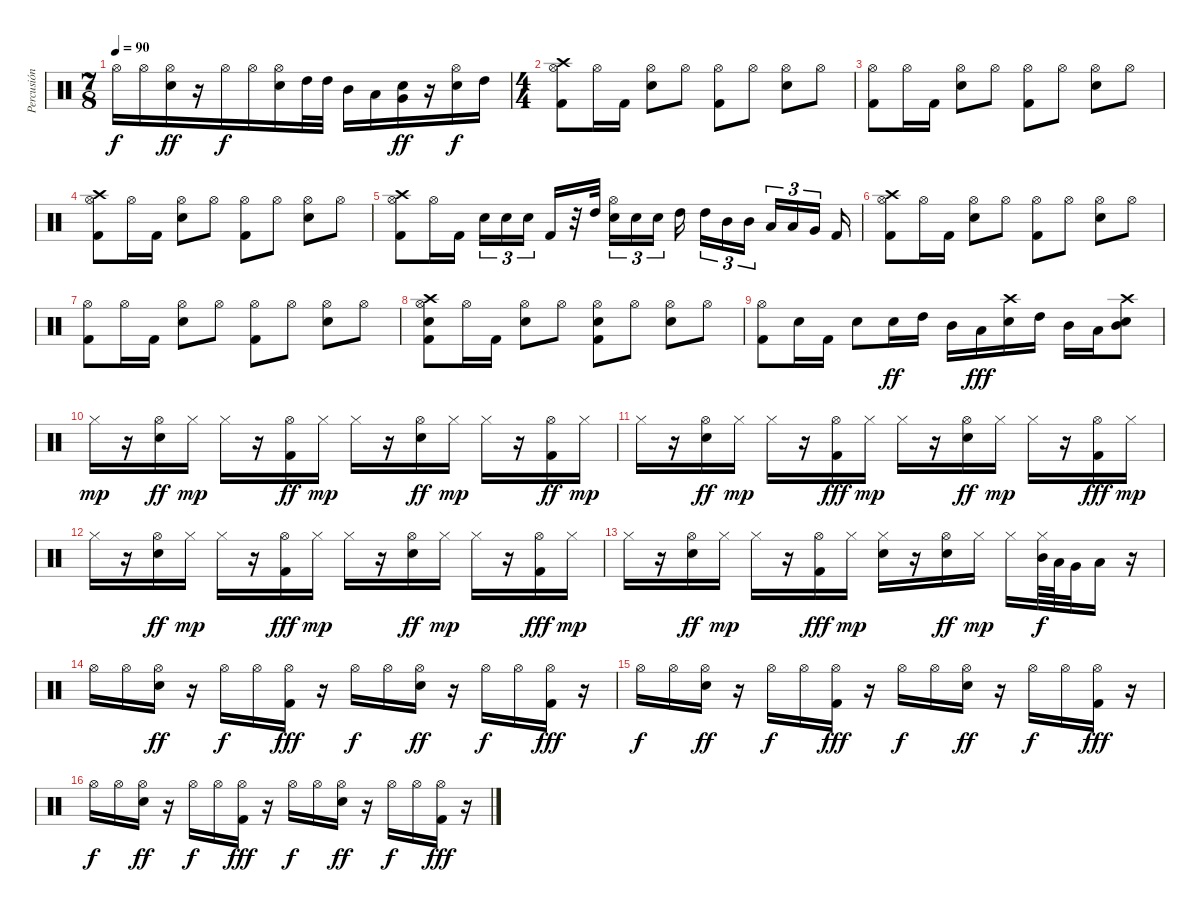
\track ("Percusión" "Percusión") {instrument percussion}
\staff {score}
\articulation defaults
\ts (7 8)
\tempo 90
\clef neutral
\ks c "Hi-Hat (open)".16{dy f} "Hi-Hat (open)".16
("Hi-Hat (open)" "Electric Snare (hit)").16{dy ff} r.16 "Hi-Hat (open)".16{dy f} "Hi-Hat (open)".16 ("Hi-Hat (open)" "Electric Snare (hit)").16 "High Tom (hit)".32 "High Tom (hit)".32 "Mid Tom (hit)".16 "Low Tom (hit)".16 ("Electric Snare (hit)" "Very Low Tom (hit)").16{dy ff} r.16 ("Hi-Hat (open)" "Electric Snare (hit)").16{dy f} "High Tom (hit)".16 |
\ts (4 4)
("Crash high (hit)" "Hi-Hat (open)" "Kick (hit) 2").8 "Hi-Hat (open)".16 "Kick (hit) 2".16 ("Hi-Hat (open)" "Electric Snare (hit)").8 "Hi-Hat (open)".8 ("Hi-Hat (open)" "Kick (hit) 2").8 "Hi-Hat (open)".8 ("Hi-Hat (open)" "Electric Snare (hit)").8 "Hi-Hat (open)".8 |
("Hi-Hat (open)" "Kick (hit) 2").8 "Hi-Hat (open)".16 "Kick (hit) 2".16 ("Hi-Hat (open)" "Electric Snare (hit)").8 "Hi-Hat (open)".8 ("Hi-Hat (open)" "Kick (hit) 2").8 "Hi-Hat (open)".8 ("Hi-Hat (open)" "Electric Snare (hit)").8 "Hi-Hat (open)".8 |
("Crash high (hit)" "Hi-Hat (open)" "Kick (hit) 2").8 "Hi-Hat (open)".16 "Kick (hit) 2".16 ("Hi-Hat (open)" "Electric Snare (hit)").8 "Hi-Hat (open)".8 ("Hi-Hat (open)" "Kick (hit) 2").8 "Hi-Hat (open)".8 ("Hi-Hat (open)" "Electric Snare (hit)").8 "Hi-Hat (open)".8 |
("Crash high (hit)" "Hi-Hat (open)" "Kick (hit) 2").8 "Hi-Hat (open)".16 "Kick (hit) 2".16 "Electric Snare (hit)".16{tu (3 2)} "Electric Snare (hit)".16{tu (3 2)} "Electric Snare (hit)".16{tu (3 2)} "Kick (hit) 2".16 r.32 "High Tom (hit)".32 ("Hi-Hat (open)" "Electric Snare (hit)").16{tu (3 2)} "Electric Snare (hit)".16{tu (3 2)} "Electric Snare (hit)".16{tu (3 2)} "High Tom (hit)".16 "High Tom (hit)".16{tu (3 2)} "Mid Tom (hit)".16{tu (3 2)} "Mid Tom (hit)".16{tu (3 2)} "Low Tom (hit)".16{tu (3 2)} "Low Tom (hit)".16{tu (3 2)} "Very Low Tom (hit)".16{tu (3 2)} "Kick (hit) 2".16 |
("Crash high (hit)" "Hi-Hat (open)" "Kick (hit) 2").8 "Hi-Hat (open)".16 "Kick (hit) 2".16 ("Hi-Hat (open)" "Electric Snare (hit)").8 "Hi-Hat (open)".8 ("Hi-Hat (open)" "Kick (hit) 2").8 "Hi-Hat (open)".8 ("Hi-Hat (open)" "Electric Snare (hit)").8 "Hi-Hat (open)".8 |
("Hi-Hat (open)" "Kick (hit) 2").8 "Hi-Hat (open)".16 "Kick (hit) 2".16 ("Hi-Hat (open)" "Electric Snare (hit)").8 "Hi-Hat (open)".8 ("Hi-Hat (open)" "Kick (hit) 2").8 "Hi-Hat (open)".8 ("Hi-Hat (open)" "Electric Snare (hit)").8 "Hi-Hat (open)".8 |
("Crash high (hit)" "Hi-Hat (open)" "Electric Snare (hit)" "Kick (hit) 2").8 "Hi-Hat (open)".16 "Kick (hit) 2".16 ("Hi-Hat (open)" "Electric Snare (hit)").8 "Hi-Hat (open)".8 ("Hi-Hat (open)" "Electric Snare (hit)" "Kick (hit) 2").8 "Hi-Hat (open)".8 ("Hi-Hat (open)" "Electric Snare (hit)").8 "Hi-Hat (open)".8 |
("Hi-Hat (open)" "Kick (hit) 2").8 "Electric Snare (hit)".16 "Kick (hit) 2".16 "Electric Snare (hit)".8 "Electric Snare (hit)".16{dy ff} "High Tom (hit)".16 "Mid Tom (hit)".16 "Low Tom (hit)".16{dy fff} ("Crash high (hit)" "Electric Snare (hit)").16 "High Tom (hit)".16 "Mid Tom (hit)".16 "Low Tom (hit)".16 ("Crash high (hit)" "Mid Tom (hit)" "Electric Snare (hit)").8 |
"Hi-Hat (closed)".16{dy mp} r.16 ("Hi-Hat (open)" "Electric Snare (hit)").16{dy ff} "Hi-Hat (closed)".16{dy mp} "Hi-Hat (closed)".16 r.16 ("Hi-Hat (open)" "Kick (hit) 2").16{dy ff} "Hi-Hat (closed)".16{dy mp} "Hi-Hat (closed)".16 r.16 ("Hi-Hat (open)" "Electric Snare (hit)").16{dy ff} "Hi-Hat (closed)".16{dy mp} "Hi-Hat (closed)".16 r.16 ("Hi-Hat (open)" "Kick (hit) 2").16{dy ff} "Hi-Hat (closed)".16{dy mp} |
"Hi-Hat (closed)".16 r.16 ("Hi-Hat (open)" "Electric Snare (hit)").16{dy ff} "Hi-Hat (closed)".16{dy mp} "Hi-Hat (closed)".16 r.16 ("Hi-Hat (open)" "Kick (hit) 2").16{dy fff} "Hi-Hat (closed)".16{dy mp} "Hi-Hat (closed)".16 r.16 ("Hi-Hat (open)" "Electric Snare (hit)").16{dy ff} "Hi-Hat (closed)".16{dy mp} "Hi-Hat (closed)".16 r.16 ("Hi-Hat (open)" "Kick (hit) 2").16{dy fff} "Hi-Hat (closed)".16{dy mp} |
"Hi-Hat (closed)".16 r.16 ("Hi-Hat (open)" "Electric Snare (hit)").16{dy ff} "Hi-Hat (closed)".16{dy mp} "Hi-Hat (closed)".16 r.16 ("Hi-Hat (open)" "Kick (hit) 2").16{dy fff} "Hi-Hat (closed)".16{dy mp} "Hi-Hat (closed)".16 r.16 ("Hi-Hat (open)" "Electric Snare (hit)").16{dy ff} "Hi-Hat (closed)".16{dy mp} "Hi-Hat (closed)".16 r.16 ("Hi-Hat (open)" "Kick (hit) 2").16{dy fff} "Hi-Hat (closed)".16{dy mp} |
"Hi-Hat (closed)".16 r.16 ("Hi-Hat (open)" "Electric Snare (hit)").16{dy ff} "Hi-Hat (closed)".16{dy mp} "Hi-Hat (closed)".16 r.16 ("Hi-Hat (open)" "Kick (hit) 2").16{dy fff} "Hi-Hat (closed)".16{dy mp} ("Hi-Hat (closed)" "Electric Snare (hit)").16 r.16 ("Hi-Hat (open)" "Electric Snare (hit)").16{dy ff} "Hi-Hat (closed)".16{dy mp} "Hi-Hat (closed)".16 ("Hi-Hat (closed)" "Mid Tom (hit)").64{dy f} "Low Tom (hit)".64 "Very Low Tom (hit)".32 "Low Floor Tom (hit)".16 r.16 |
"Hi-Hat (open)".16 "Hi-Hat (open)".16 ("Hi-Hat (open)" "Electric Snare (hit)").16{dy ff} r.16 "Hi-Hat (open)".16{dy f} "Hi-Hat (open)".16 ("Hi-Hat (open)" "Kick (hit) 2").16{dy fff} r.16 "Hi-Hat (open)".16{dy f} "Hi-Hat (open)".16 ("Hi-Hat (open)" "Electric Snare (hit)").16{dy ff} r.16 "Hi-Hat (open)".16{dy f} "Hi-Hat (open)".16 ("Hi-Hat (open)" "Kick (hit) 2").16{dy fff} r.16 |
"Hi-Hat (open)".16{dy f} "Hi-Hat (open)".16 ("Hi-Hat (open)" "Electric Snare (hit)").16{dy ff} r.16 "Hi-Hat (open)".16{dy f} "Hi-Hat (open)".16 ("Hi-Hat (open)" "Kick (hit) 2").16{dy fff} r.16 "Hi-Hat (open)".16{dy f} "Hi-Hat (open)".16 ("Hi-Hat (open)" "Electric Snare (hit)").16{dy ff} r.16 "Hi-Hat (open)".16{dy f} "Hi-Hat (open)".16 ("Hi-Hat (open)" "Kick (hit) 2").16{dy fff} r.16 |
"Hi-Hat (open)".16{dy f} "Hi-Hat (open)".16 ("Hi-Hat (open)" "Electric Snare (hit)").16{dy ff} r.16 "Hi-Hat (open)".16{dy f} "Hi-Hat (open)".16 ("Hi-Hat (open)" "Kick (hit) 2").16{dy fff} r.16 "Hi-Hat (open)".16{dy f} "Hi-Hat (open)".16 ("Hi-Hat (open)" "Electric Snare (hit)").16{dy ff} r.16 "Hi-Hat (open)".16{dy f} "Hi-Hat (open)".16 ("Hi-Hat (open)" "Kick (hit) 2").16{dy fff} r.16
